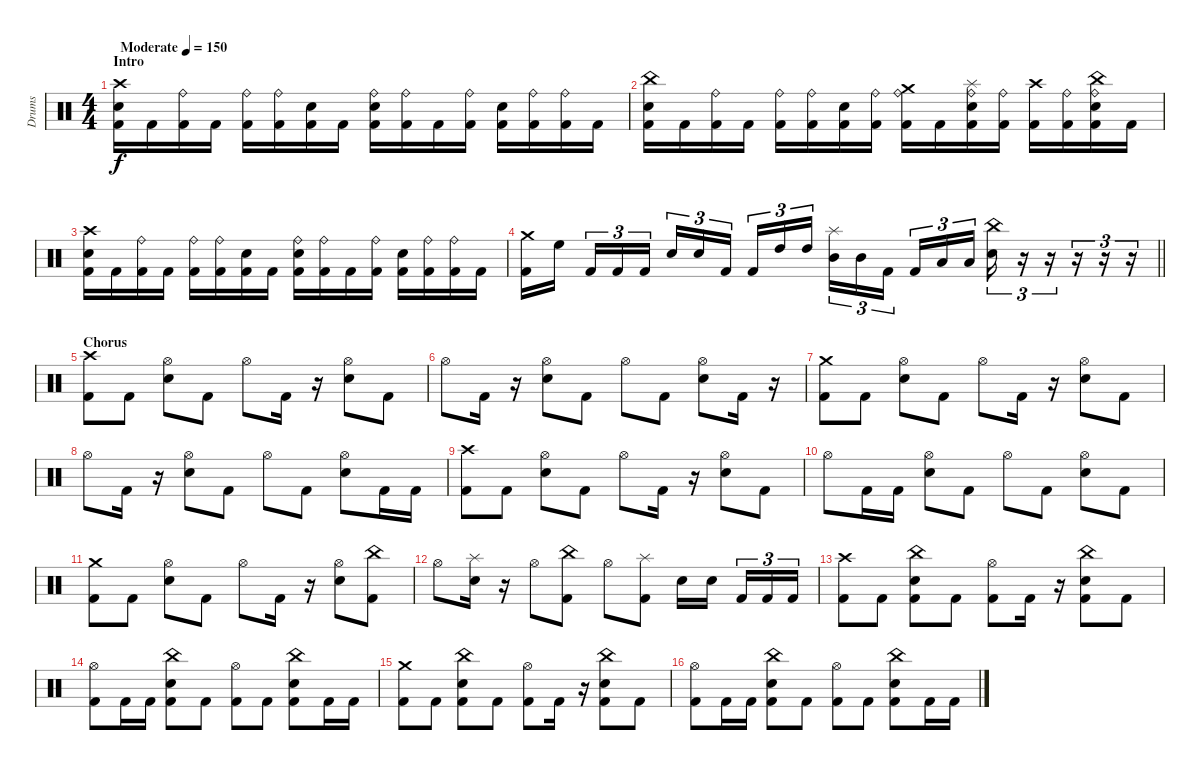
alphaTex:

\track ("Drums" "Drums") {instrument percussion}
\staff {score}
\articulation defaults
\ts (4 4)
\section ("" "Intro")
\tempo (150 "Moderate")
\clef neutral
\ks c
("Crash high (hit)" "Snare (hit) 2" "Kick (hit) 2").16{dy f} "Kick (hit) 2".16 ("Ride (bell)" "Kick (hit) 2").16 "Kick (hit) 2".16 ("Ride (bell)" "Kick (hit) 2").16 ("Ride (bell)" "Kick (hit) 2").16 ("Snare (hit) 2" "Kick (hit) 2").16 "Kick (hit) 2".16 ("Ride (bell)" "Snare (hit) 2" "Kick (hit) 2").16 ("Ride (bell)" "Kick (hit) 2").16 "Kick (hit) 2".16 ("Ride (bell)" "Kick (hit) 2").16 ("Snare (hit) 2" "Kick (hit) 2").16 ("Ride (bell)" "Kick (hit) 2").16 ("Ride (bell)" "Kick (hit) 2").16 "Kick (hit) 2".16 |
("China (hit)" "Snare (hit) 2" "Kick (hit) 2").16 "Kick (hit) 2".16 ("Ride (bell)" "Kick (hit) 2").16 "Kick (hit) 2".16 ("Ride (bell)" "Kick (hit) 2").16 ("Ride (bell)" "Kick (hit) 2").16 ("Snare (hit) 2" "Kick (hit) 2").16 ("Ride (bell)" "Kick (hit) 2").16 ("Crash medium (hit)" "Ride (bell)" "Kick (hit) 2").16 "Kick (hit) 2".16 ("Splash (hit)" "Ride (bell)" "Snare (hit) 2" "Kick (hit) 2").16 ("Ride (bell)" "Kick (hit) 2").16 ("Crash high (hit)" "Kick (hit) 2").16 ("Ride (bell)" "Kick (hit) 2").16 ("China (hit)" "Ride (bell)" "Snare (hit) 2" "Kick (hit) 2").16 "Kick (hit) 2".16 |
("Crash high (hit)" "Snare (hit) 2" "Kick (hit) 2").16 "Kick (hit) 2".16 ("Ride (bell)" "Kick (hit) 2").16 "Kick (hit) 2".16 ("Ride (bell)" "Kick (hit) 2").16 ("Ride (bell)" "Kick (hit) 2").16 ("Snare (hit) 2" "Kick (hit) 2").16 "Kick (hit) 2".16 ("Ride (bell)" "Snare (hit) 2" "Kick (hit) 2").16 ("Ride (bell)" "Kick (hit) 2").16 "Kick (hit) 2".16 ("Ride (bell)" "Kick (hit) 2").16 ("Snare (hit) 2" "Kick (hit) 2").16 ("Ride (bell)" "Kick (hit) 2").16 ("Ride (bell)" "Kick (hit) 2").16 "Kick (hit) 2".16 |
\barLineRight lightlight
("Crash medium (hit)" "Kick (hit) 2").16 "High Floor Tom (hit)".16{beam splitsecondary} "Kick (hit) 2".16{tu (3 2)} "Kick (hit) 2".16{tu (3 2)} "Kick (hit) 2".16{tu (3 2)} "Snare (hit) 2".16{tu (3 2)} "Snare (hit) 2".16{tu (3 2)} "Kick (hit) 2".16{tu (3 2) beam splitsecondary} "Kick (hit) 2".16{tu (3 2)} "High Tom (hit)".16{tu (3 2)} "High Tom (hit)".16{tu (3 2)} ("Splash (hit)" "Mid Tom (hit)").16{tu (3 2)} "Mid Tom (hit)".16{tu (3 2)} "Kick (hit) 2".16{tu (3 2) beam splitsecondary} "Kick (hit) 2".16{tu (3 2)} "Low Tom (hit)".16{tu (3 2)} "Low Tom (hit)".16{tu (3 2)} ("China (hit)" "Snare (hit) 2").16{tu (3 2)} r.16{tu (3 2)} r.16{tu (3 2)} r.16{tu (3 2)} r.16{tu (3 2)} r.16{tu (3 2)} |
\section ("" "Chorus")
("Crash high (hit)" "Kick (hit) 2").8 "Kick (hit) 2".8 ("Hi-Hat (open)" "Snare (hit) 2").8 "Kick (hit) 2".8 "Hi-Hat (open)".8 "Kick (hit) 2".16 r.16 ("Hi-Hat (open)" "Snare (hit) 2").8 "Kick (hit) 2".8 |
"Hi-Hat (open)".8 "Kick (hit) 2".16 r.16 ("Hi-Hat (open)" "Snare (hit) 2").8 "Kick (hit) 2".8 "Hi-Hat (open)".8 "Kick (hit) 2".8 ("Hi-Hat (open)" "Snare (hit) 2").8 "Kick (hit) 2".16 r.16 |
("Crash medium (hit)" "Kick (hit) 2").8 "Kick (hit) 2".8 ("Hi-Hat (open)" "Snare (hit) 2").8 "Kick (hit) 2".8 "Hi-Hat (open)".8 "Kick (hit) 2".16 r.16 ("Hi-Hat (open)" "Snare (hit) 2").8 "Kick (hit) 2".8 |
"Hi-Hat (open)".8 "Kick (hit) 2".16 r.16 ("Hi-Hat (open)" "Snare (hit) 2").8 "Kick (hit) 2".8 "Hi-Hat (open)".8 "Kick (hit) 2".8 ("Hi-Hat (open)" "Snare (hit) 2").8 "Kick (hit) 2".16 "Kick (hit) 2".16 |
("Crash high (hit)" "Kick (hit) 2").8 "Kick (hit) 2".8 ("Hi-Hat (open)" "Snare (hit) 2").8 "Kick (hit) 2".8 "Hi-Hat (open)".8 "Kick (hit) 2".16 r.16 ("Hi-Hat (open)" "Snare (hit) 2").8 "Kick (hit) 2".8 |
"Hi-Hat (open)".8 "Kick (hit) 2".16 "Kick (hit) 2".16 ("Hi-Hat (open)" "Snare (hit) 2").8 "Kick (hit) 2".8 "Hi-Hat (open)".8 "Kick (hit) 2".8 ("Hi-Hat (open)" "Snare (hit) 2").8 "Kick (hit) 2".8 |
("Crash medium (hit)" "Kick (hit) 2").8 "Kick (hit) 2".8 ("Hi-Hat (open)" "Snare (hit) 2").8 "Kick (hit) 2".8 "Hi-Hat (open)".8 "Kick (hit) 2".16 r.16 ("Hi-Hat (open)" "Snare (hit) 2").8 ("China (hit)" "Kick (hit) 2").8 |
"Hi-Hat (open)".8 ("Splash (hit)" "Snare (hit) 2").16 r.16 "Hi-Hat (open)".8 ("China (hit)" "Kick (hit) 2").8 "Hi-Hat (open)".8 ("Splash (hit)" "Kick (hit) 2").8 "Snare (hit) 2".16 "Snare (hit) 2".16{beam splitsecondary} "Kick (hit) 2".16{tu (3 2)} "Kick (hit) 2".16{tu (3 2)} "Kick (hit) 2".16{tu (3 2)} |
("Crash high (hit)" "Kick (hit) 2").8 "Kick (hit) 2".8 ("China (hit)" "Snare (hit) 2" "Kick (hit) 2").8 "Kick (hit) 2".8 ("Hi-Hat (open)" "Kick (hit) 2").8 "Kick (hit) 2".16 r.16 ("China (hit)" "Snare (hit) 2" "Kick (hit) 2").8 "Kick (hit) 2".8 |
("Hi-Hat (open)" "Kick (hit) 2").8 "Kick (hit) 2".16 "Kick (hit) 2".16 ("China (hit)" "Snare (hit) 2" "Kick (hit) 2").8 "Kick (hit) 2".8 ("Hi-Hat (open)" "Kick (hit) 2").8 "Kick (hit) 2".8 ("China (hit)" "Snare (hit) 2" "Kick (hit) 2").8 "Kick (hit) 2".16 "Kick (hit) 2".16 |
("Crash medium (hit)" "Kick (hit) 2").8 "Kick (hit) 2".8 ("China (hit)" "Snare (hit) 2" "Kick (hit) 2").8 "Kick (hit) 2".8 ("Hi-Hat (open)" "Kick (hit) 2").8 "Kick (hit) 2".16 r.16 ("China (hit)" "Snare (hit) 2" "Kick (hit) 2").8 "Kick (hit) 2".8 |
("Hi-Hat (open)" "Kick (hit) 2").8 "Kick (hit) 2".16 "Kick (hit) 2".16 ("China (hit)" "Snare (hit) 2" "Kick (hit) 2").8 "Kick (hit) 2".8 ("Hi-Hat (open)" "Kick (hit) 2").8 "Kick (hit) 2".8 ("China (hit)" "Snare (hit) 2" "Kick (hit) 2").8 "Kick (hit) 2".16 "Kick (hit) 2".16
